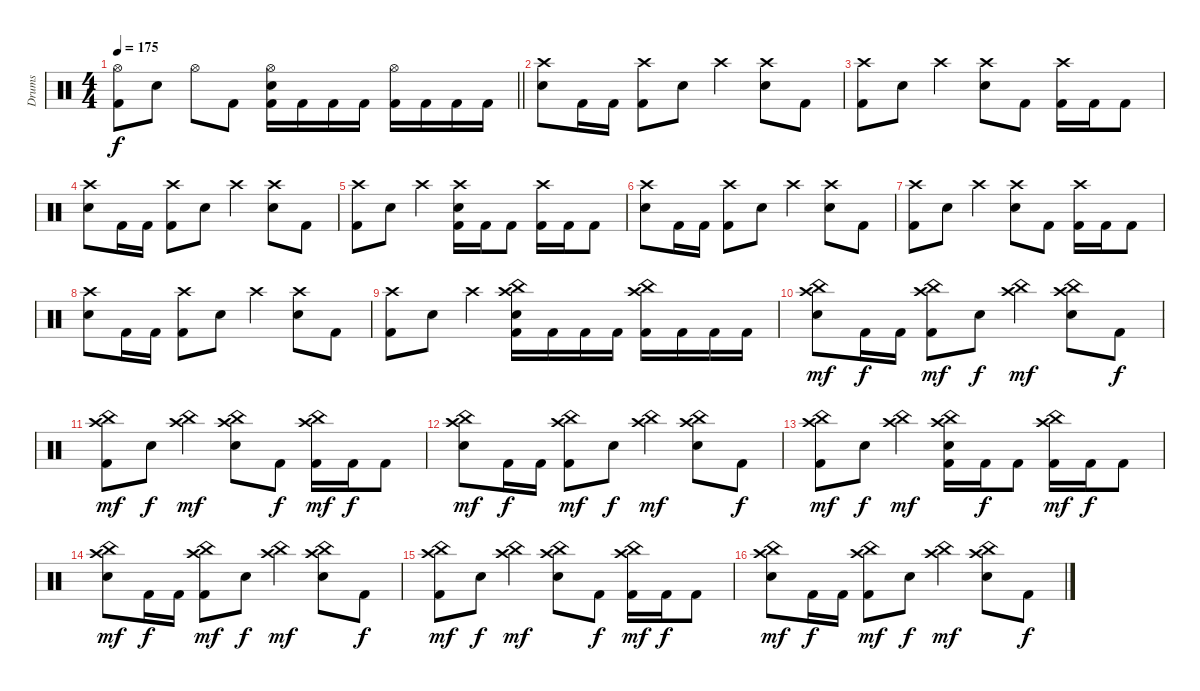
\track ("Drums" "Drums") {instrument percussion}
\staff {score}
\articulation defaults
\ts (4 4)
\tempo 175
\clef neutral
\barLineRight lightlight
\ks c
("Hi-Hat (open)" "Kick (hit) 2").8{dy f} "Snare (hit) 2".8 "Hi-Hat (open)".8 "Kick (hit) 2".8 ("Hi-Hat (open)" "Snare (hit) 2" "Kick (hit) 2").16 "Kick (hit) 2".16 "Kick (hit) 2".16 "Kick (hit) 2".16 ("Hi-Hat (open)" "Kick (hit) 2").16 "Kick (hit) 2".16 "Kick (hit) 2".16 "Kick (hit) 2".16 |
("Crash high (hit)" "Snare (hit) 2").8 "Kick (hit) 2".16 "Kick (hit) 2".16 ("Crash high (hit)" "Kick (hit) 2").8 "Snare (hit) 2".8 "Crash high (hit)".4 ("Crash high (hit)" "Snare (hit) 2").8 "Kick (hit) 2".8 |
("Crash high (hit)" "Kick (hit) 2").8 "Snare (hit) 2".8 "Crash high (hit)".4 ("Crash high (hit)" "Snare (hit) 2").8 "Kick (hit) 2".8 ("Crash high (hit)" "Kick (hit) 2").16 "Kick (hit) 2".16 "Kick (hit) 2".8 |
("Crash high (hit)" "Snare (hit) 2").8 "Kick (hit) 2".16 "Kick (hit) 2".16 ("Crash high (hit)" "Kick (hit) 2").8 "Snare (hit) 2".8 "Crash high (hit)".4 ("Crash high (hit)" "Snare (hit) 2").8 "Kick (hit) 2".8 |
("Crash high (hit)" "Kick (hit) 2").8 "Snare (hit) 2".8 "Crash high (hit)".4 ("Crash high (hit)" "Snare (hit) 2" "Kick (hit) 2").16 "Kick (hit) 2".16 "Kick (hit) 2".8 ("Crash high (hit)" "Kick (hit) 2").16 "Kick (hit) 2".16 "Kick (hit) 2".8 |
("Crash high (hit)" "Snare (hit) 2").8 "Kick (hit) 2".16 "Kick (hit) 2".16 ("Crash high (hit)" "Kick (hit) 2").8 "Snare (hit) 2".8 "Crash high (hit)".4 ("Crash high (hit)" "Snare (hit) 2").8 "Kick (hit) 2".8 |
("Crash high (hit)" "Kick (hit) 2").8 "Snare (hit) 2".8 "Crash high (hit)".4 ("Crash high (hit)" "Snare (hit) 2").8 "Kick (hit) 2".8 ("Crash high (hit)" "Kick (hit) 2").16 "Kick (hit) 2".16 "Kick (hit) 2".8 |
("Crash high (hit)" "Snare (hit) 2").8 "Kick (hit) 2".16 "Kick (hit) 2".16 ("Crash high (hit)" "Kick (hit) 2").8 "Snare (hit) 2".8 "Crash high (hit)".4 ("Crash high (hit)" "Snare (hit) 2").8 "Kick (hit) 2".8 |
("Crash high (hit)" "Kick (hit) 2").8 "Snare (hit) 2".8 "Crash high (hit)".4 ("Crash high (hit)" "China (hit)" "Snare (hit) 2" "Kick (hit) 2").16 "Kick (hit) 2".16 "Kick (hit) 2".16 "Kick (hit) 2".16 ("Crash high (hit)" "China (hit)" "Kick (hit) 2").16 "Kick (hit) 2".16 "Kick (hit) 2".16 "Kick (hit) 2".16 |
("Crash high (hit)" "China (hit)" "Snare (hit) 2").8{dy mf} "Kick (hit) 2".16{dy f} "Kick (hit) 2".16 ("Crash high (hit)" "China (hit)" "Kick (hit) 2").8{dy mf} "Snare (hit) 2".8{dy f} ("Crash high (hit)" "China (hit)").4{dy mf} ("Crash high (hit)" "China (hit)" "Snare (hit) 2").8 "Kick (hit) 2".8{dy f} |
("Crash high (hit)" "China (hit)" "Kick (hit) 2").8{dy mf} "Snare (hit) 2".8{dy f} ("Crash high (hit)" "China (hit)").4{dy mf} ("Crash high (hit)" "China (hit)" "Snare (hit) 2").8 "Kick (hit) 2".8{dy f} ("Crash high (hit)" "China (hit)" "Kick (hit) 2").16{dy mf} "Kick (hit) 2".16{dy f} "Kick (hit) 2".8 |
("Crash high (hit)" "China (hit)" "Snare (hit) 2").8{dy mf} "Kick (hit) 2".16{dy f} "Kick (hit) 2".16 ("Crash high (hit)" "China (hit)" "Kick (hit) 2").8{dy mf} "Snare (hit) 2".8{dy f} ("Crash high (hit)" "China (hit)").4{dy mf} ("Crash high (hit)" "China (hit)" "Snare (hit) 2").8 "Kick (hit) 2".8{dy f} |
("Crash high (hit)" "China (hit)" "Kick (hit) 2").8{dy mf} "Snare (hit) 2".8{dy f} ("Crash high (hit)" "China (hit)").4{dy mf} ("Crash high (hit)" "China (hit)" "Snare (hit) 2" "Kick (hit) 2").16 "Kick (hit) 2".16{dy f} "Kick (hit) 2".8 ("Crash high (hit)" "China (hit)" "Kick (hit) 2").16{dy mf} "Kick (hit) 2".16{dy f} "Kick (hit) 2".8 |
("Crash high (hit)" "China (hit)" "Snare (hit) 2").8{dy mf} "Kick (hit) 2".16{dy f} "Kick (hit) 2".16 ("Crash high (hit)" "China (hit)" "Kick (hit) 2").8{dy mf} "Snare (hit) 2".8{dy f} ("Crash high (hit)" "China (hit)").4{dy mf} ("Crash high (hit)" "China (hit)" "Snare (hit) 2").8 "Kick (hit) 2".8{dy f} |
("Crash high (hit)" "China (hit)" "Kick (hit) 2").8{dy mf} "Snare (hit) 2".8{dy f} ("Crash high (hit)" "China (hit)").4{dy mf} ("Crash high (hit)" "China (hit)" "Snare (hit) 2").8 "Kick (hit) 2".8{dy f} ("Crash high (hit)" "China (hit)" "Kick (hit) 2").16{dy mf} "Kick (hit) 2".16{dy f} "Kick (hit) 2".8 |
("Crash high (hit)" "China (hit)" "Snare (hit) 2").8{dy mf} "Kick (hit) 2".16{dy f} "Kick (hit) 2".16 ("Crash high (hit)" "China (hit)" "Kick (hit) 2").8{dy mf} "Snare (hit) 2".8{dy f} ("Crash high (hit)" "China (hit)").4{dy mf} ("Crash high (hit)" "China (hit)" "Snare (hit) 2").8 "Kick (hit) 2".8{dy f}
